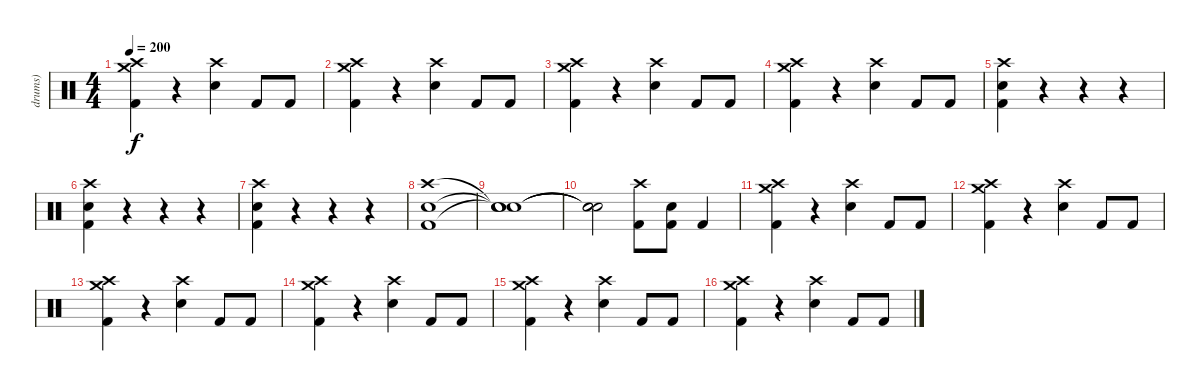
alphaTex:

\track ("drums)" "drums)") {instrument percussion}
\staff {score}
\articulation defaults
\ts (4 4)
\tempo 200
\clef neutral
\ks c
("Crash high (hit)" "Crash medium (hit)" "Kick (hit) 2").4{dy f} r.4 ("Crash high (hit)" "Electric Snare (hit)").4 "Kick (hit) 2".8 "Kick (hit) 2".8 |
("Crash high (hit)" "Crash medium (hit)" "Kick (hit) 2").4 r.4 ("Crash high (hit)" "Electric Snare (hit)").4 "Kick (hit) 2".8 "Kick (hit) 2".8 |
("Crash high (hit)" "Crash medium (hit)" "Kick (hit) 2").4 r.4 ("Crash high (hit)" "Electric Snare (hit)").4 "Kick (hit) 2".8 "Kick (hit) 2".8 |
("Crash high (hit)" "Crash medium (hit)" "Kick (hit) 2").4 r.4 ("Crash high (hit)" "Electric Snare (hit)").4 "Kick (hit) 2".8 "Kick (hit) 2".8 |
("Crash high (hit)" "Electric Snare (hit)" "Kick (hit) 2").4 r.4 r.4 r.4 |
("Crash high (hit)" "Electric Snare (hit)" "Kick (hit) 2").4 r.4 r.4 r.4 |
("Crash high (hit)" "Electric Snare (hit)" "Kick (hit) 2").4 r.4 r.4 r.4 |
("Crash high (hit)" "Electric Snare (hit)" "Kick (hit) 2").1 |
("Snare (hit)"{t} "Snare (hit)"{t} "Snare (hit)"{t}).1 |
("Snare (hit)"{t} "Snare (hit)"{t} "Snare (hit)"{t}).2 ("Crash high (hit)" "Kick (hit) 2").8 ("Electric Snare (hit)" "Kick (hit) 2").8 "Kick (hit) 2".4 |
("Crash high (hit)" "Crash medium (hit)" "Kick (hit) 2").4 r.4 ("Crash high (hit)" "Electric Snare (hit)").4 "Kick (hit) 2".8 "Kick (hit) 2".8 |
("Crash high (hit)" "Crash medium (hit)" "Kick (hit) 2").4 r.4 ("Crash high (hit)" "Electric Snare (hit)").4 "Kick (hit) 2".8 "Kick (hit) 2".8 |
("Crash high (hit)" "Crash medium (hit)" "Kick (hit) 2").4 r.4 ("Crash high (hit)" "Electric Snare (hit)").4 "Kick (hit) 2".8 "Kick (hit) 2".8 |
("Crash high (hit)" "Crash medium (hit)" "Kick (hit) 2").4 r.4 ("Crash high (hit)" "Electric Snare (hit)").4 "Kick (hit) 2".8 "Kick (hit) 2".8 |
("Crash high (hit)" "Crash medium (hit)" "Kick (hit) 2").4 r.4 ("Crash high (hit)" "Electric Snare (hit)").4 "Kick (hit) 2".8 "Kick (hit) 2".8 |
("Crash high (hit)" "Crash medium (hit)" "Kick (hit) 2").4 r.4 ("Crash high (hit)" "Electric Snare (hit)").4 "Kick (hit) 2".8 "Kick (hit) 2".8
